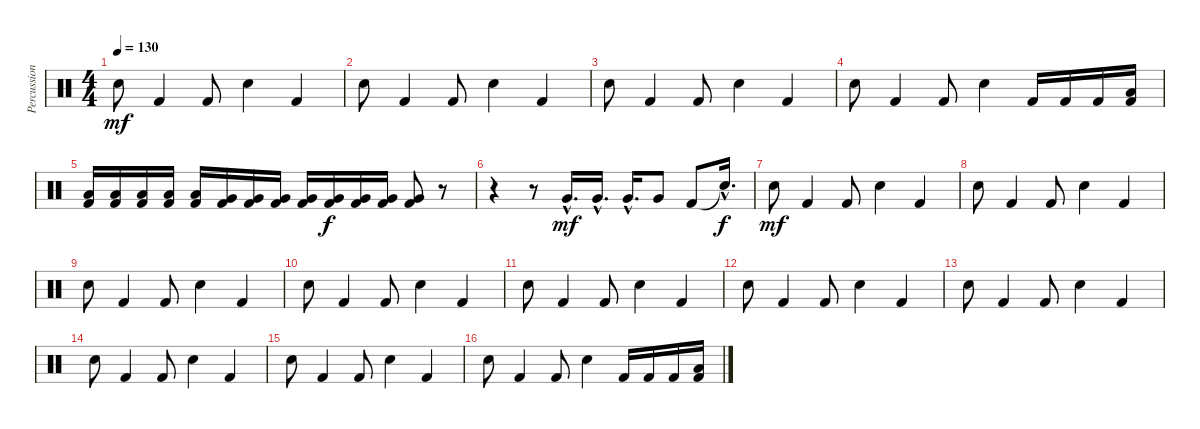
\track ("Percussion" "Percussion") {instrument percussion}
\staff {score}
\articulation defaults
\ts (4 4)
\tempo 130
\clef neutral
\ks c "Electric Snare (hit)".8{dy mf} "Kick (hit) 2".4 "Kick (hit) 2".8 "Electric Snare (hit)".4 "Kick (hit) 2".4
|
"Electric Snare (hit)".8 "Kick (hit) 2".4 "Kick (hit) 2".8 "Electric Snare (hit)".4 "Kick (hit) 2".4 |
"Electric Snare (hit)".8 "Kick (hit) 2".4 "Kick (hit) 2".8 "Electric Snare (hit)".4 "Kick (hit) 2".4 |
"Electric Snare (hit)".8 "Kick (hit) 2".4 "Kick (hit) 2".8 "Electric Snare (hit)".4 "Kick (hit) 2".16 "Kick (hit) 2".16 "Kick (hit) 2".16 ("Kick (hit) 2" "Low Tom (hit)").16 |
("Kick (hit) 2" "Low Tom (hit)").16 ("Kick (hit) 2" "Low Tom (hit)").16 ("Kick (hit) 2" "Low Tom (hit)").16 ("Kick (hit) 2" "Low Tom (hit)").16 ("Kick (hit) 2" "Low Tom (hit)").16 ("Kick (hit) 2" "Very Low Tom (hit)").16 ("Kick (hit) 2" "Very Low Tom (hit)").16 ("Kick (hit) 2" "Very Low Tom (hit)").16 ("Kick (hit) 2" "Very Low Tom (hit)").16 ("Kick (hit) 2" "Very Low Tom (hit)").16{dy f} ("Kick (hit) 2" "Very Low Tom (hit)").16 ("Kick (hit) 2" "Very Low Tom (hit)").16 ("Kick (hit) 2" "Very Low Tom (hit)").8 r.8 |
r.4 r.8 "Very Low Tom (hit)"{hac}.16{d dy mf} "Very Low Tom (hit)"{hac}.16{d} "Very Low Tom (hit)"{hac}.16{d} "Very Low Tom (hit)".8 "Kick (hit) 2".8 "Snare (hit)"{hac t}.16{d dy f} |
"Electric Snare (hit)".8{dy mf} "Kick (hit) 2".4 "Kick (hit) 2".8 "Electric Snare (hit)".4 "Kick (hit) 2".4 |
"Electric Snare (hit)".8 "Kick (hit) 2".4 "Kick (hit) 2".8 "Electric Snare (hit)".4 "Kick (hit) 2".4 |
"Electric Snare (hit)".8 "Kick (hit) 2".4 "Kick (hit) 2".8 "Electric Snare (hit)".4 "Kick (hit) 2".4 |
"Electric Snare (hit)".8 "Kick (hit) 2".4 "Kick (hit) 2".8 "Electric Snare (hit)".4 "Kick (hit) 2".4 |
"Electric Snare (hit)".8 "Kick (hit) 2".4 "Kick (hit) 2".8 "Electric Snare (hit)".4 "Kick (hit) 2".4 |
"Electric Snare (hit)".8 "Kick (hit) 2".4 "Kick (hit) 2".8 "Electric Snare (hit)".4 "Kick (hit) 2".4 |
"Electric Snare (hit)".8 "Kick (hit) 2".4 "Kick (hit) 2".8 "Electric Snare (hit)".4 "Kick (hit) 2".4 |
"Electric Snare (hit)".8 "Kick (hit) 2".4 "Kick (hit) 2".8 "Electric Snare (hit)".4 "Kick (hit) 2".4 |
"Electric Snare (hit)".8 "Kick (hit) 2".4 "Kick (hit) 2".8 "Electric Snare (hit)".4 "Kick (hit) 2".4 |
"Electric Snare (hit)".8 "Kick (hit) 2".4 "Kick (hit) 2".8 "Electric Snare (hit)".4 "Kick (hit) 2".16 "Kick (hit) 2".16 "Kick (hit) 2".16 ("Kick (hit) 2" "Low Tom (hit)").16
